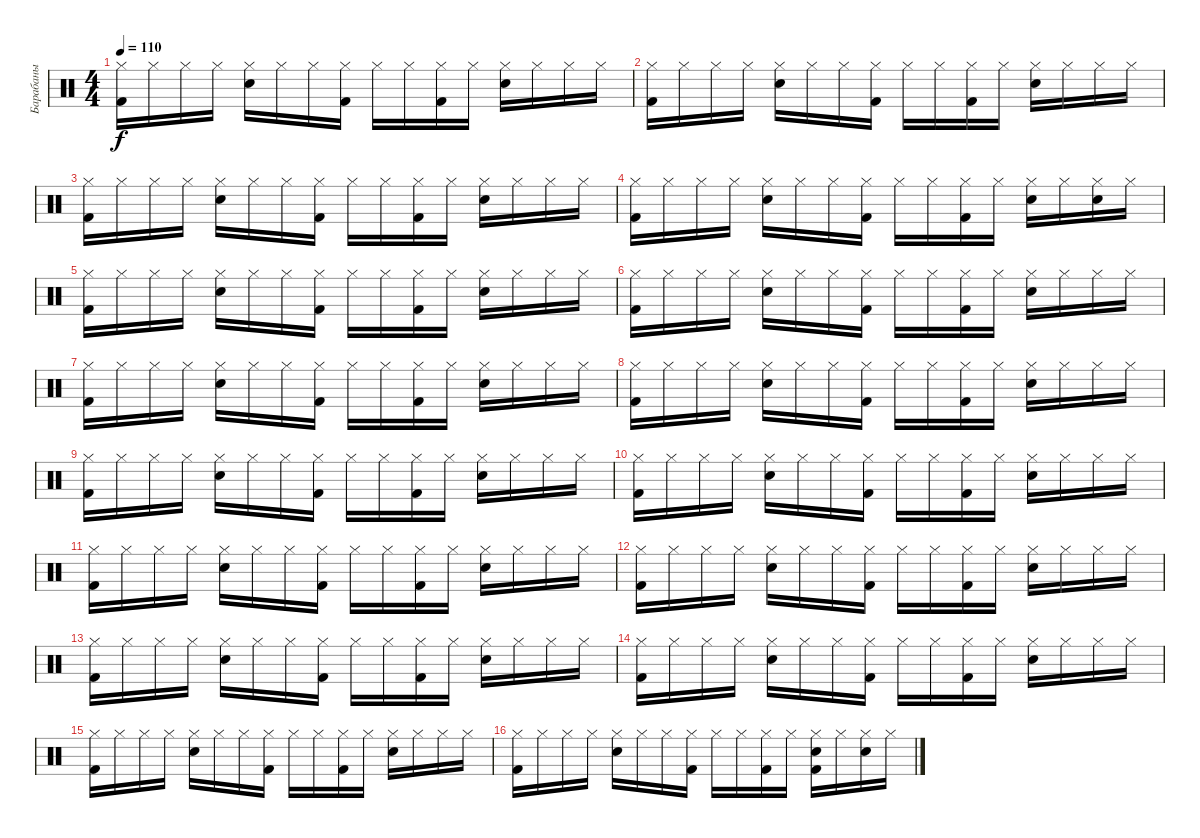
\track ("Барабаны" "Барабаны") {instrument percussion}
\staff {score}
\articulation defaults
\ts (4 4)
\tempo 110
\clef neutral
\ks c
("Hi-Hat (closed)" "Kick (hit) 2").16{dy f} "Hi-Hat (closed)".16 "Hi-Hat (closed)".16 "Hi-Hat (closed)".16 ("Hi-Hat (closed)" "Snare (hit) 2").16 "Hi-Hat (closed)".16 "Hi-Hat (closed)".16 ("Hi-Hat (closed)" "Kick (hit) 2").16 "Hi-Hat (closed)".16 "Hi-Hat (closed)".16 ("Hi-Hat (closed)" "Kick (hit) 2").16 "Hi-Hat (closed)".16 ("Hi-Hat (closed)" "Snare (hit) 2").16 "Hi-Hat (closed)".16 "Hi-Hat (closed)".16 "Hi-Hat (closed)".16 |
("Hi-Hat (closed)" "Kick (hit) 2").16 "Hi-Hat (closed)".16 "Hi-Hat (closed)".16 "Hi-Hat (closed)".16 ("Hi-Hat (closed)" "Snare (hit) 2").16 "Hi-Hat (closed)".16 "Hi-Hat (closed)".16 ("Hi-Hat (closed)" "Kick (hit) 2").16 "Hi-Hat (closed)".16 "Hi-Hat (closed)".16 ("Hi-Hat (closed)" "Kick (hit) 2").16 "Hi-Hat (closed)".16 ("Hi-Hat (closed)" "Snare (hit) 2").16 "Hi-Hat (closed)".16 "Hi-Hat (closed)".16 "Hi-Hat (closed)".16 |
("Hi-Hat (closed)" "Kick (hit) 2").16 "Hi-Hat (closed)".16 "Hi-Hat (closed)".16 "Hi-Hat (closed)".16 ("Hi-Hat (closed)" "Snare (hit) 2").16 "Hi-Hat (closed)".16 "Hi-Hat (closed)".16 ("Hi-Hat (closed)" "Kick (hit) 2").16 "Hi-Hat (closed)".16 "Hi-Hat (closed)".16 ("Hi-Hat (closed)" "Kick (hit) 2").16 "Hi-Hat (closed)".16 ("Hi-Hat (closed)" "Snare (hit) 2").16 "Hi-Hat (closed)".16 "Hi-Hat (closed)".16 "Hi-Hat (closed)".16 |
("Hi-Hat (closed)" "Kick (hit) 2").16 "Hi-Hat (closed)".16 "Hi-Hat (closed)".16 "Hi-Hat (closed)".16 ("Hi-Hat (closed)" "Snare (hit) 2").16 "Hi-Hat (closed)".16 "Hi-Hat (closed)".16 ("Hi-Hat (closed)" "Kick (hit) 2").16 "Hi-Hat (closed)".16 "Hi-Hat (closed)".16 ("Hi-Hat (closed)" "Kick (hit) 2").16 "Hi-Hat (closed)".16 ("Hi-Hat (closed)" "Snare (hit) 2").16 "Hi-Hat (closed)".16 ("Hi-Hat (closed)" "Snare (hit) 2").16 "Hi-Hat (closed)".16 |
("Hi-Hat (closed)" "Kick (hit) 2").16 "Hi-Hat (closed)".16 "Hi-Hat (closed)".16 "Hi-Hat (closed)".16 ("Hi-Hat (closed)" "Snare (hit) 2").16 "Hi-Hat (closed)".16 "Hi-Hat (closed)".16 ("Hi-Hat (closed)" "Kick (hit) 2").16 "Hi-Hat (closed)".16 "Hi-Hat (closed)".16 ("Hi-Hat (closed)" "Kick (hit) 2").16 "Hi-Hat (closed)".16 ("Hi-Hat (closed)" "Snare (hit) 2").16 "Hi-Hat (closed)".16 "Hi-Hat (closed)".16 "Hi-Hat (closed)".16 |
("Hi-Hat (closed)" "Kick (hit) 2").16 "Hi-Hat (closed)".16 "Hi-Hat (closed)".16 "Hi-Hat (closed)".16 ("Hi-Hat (closed)" "Snare (hit) 2").16 "Hi-Hat (closed)".16 "Hi-Hat (closed)".16 ("Hi-Hat (closed)" "Kick (hit) 2").16 "Hi-Hat (closed)".16 "Hi-Hat (closed)".16 ("Hi-Hat (closed)" "Kick (hit) 2").16 "Hi-Hat (closed)".16 ("Hi-Hat (closed)" "Snare (hit) 2").16 "Hi-Hat (closed)".16 "Hi-Hat (closed)".16 "Hi-Hat (closed)".16 |
("Hi-Hat (closed)" "Kick (hit) 2").16 "Hi-Hat (closed)".16 "Hi-Hat (closed)".16 "Hi-Hat (closed)".16 ("Hi-Hat (closed)" "Snare (hit) 2").16 "Hi-Hat (closed)".16 "Hi-Hat (closed)".16 ("Hi-Hat (closed)" "Kick (hit) 2").16 "Hi-Hat (closed)".16 "Hi-Hat (closed)".16 ("Hi-Hat (closed)" "Kick (hit) 2").16 "Hi-Hat (closed)".16 ("Hi-Hat (closed)" "Snare (hit) 2").16 "Hi-Hat (closed)".16 "Hi-Hat (closed)".16 "Hi-Hat (closed)".16 |
("Hi-Hat (closed)" "Kick (hit) 2").16 "Hi-Hat (closed)".16 "Hi-Hat (closed)".16 "Hi-Hat (closed)".16 ("Hi-Hat (closed)" "Snare (hit) 2").16 "Hi-Hat (closed)".16 "Hi-Hat (closed)".16 ("Hi-Hat (closed)" "Kick (hit) 2").16 "Hi-Hat (closed)".16 "Hi-Hat (closed)".16 ("Hi-Hat (closed)" "Kick (hit) 2").16 "Hi-Hat (closed)".16 ("Hi-Hat (closed)" "Snare (hit) 2").16 "Hi-Hat (closed)".16 "Hi-Hat (closed)".16 "Hi-Hat (closed)".16 |
("Hi-Hat (closed)" "Kick (hit) 2").16 "Hi-Hat (closed)".16 "Hi-Hat (closed)".16 "Hi-Hat (closed)".16 ("Hi-Hat (closed)" "Snare (hit) 2").16 "Hi-Hat (closed)".16 "Hi-Hat (closed)".16 ("Hi-Hat (closed)" "Kick (hit) 2").16 "Hi-Hat (closed)".16 "Hi-Hat (closed)".16 ("Hi-Hat (closed)" "Kick (hit) 2").16 "Hi-Hat (closed)".16 ("Hi-Hat (closed)" "Snare (hit) 2").16 "Hi-Hat (closed)".16 "Hi-Hat (closed)".16 "Hi-Hat (closed)".16 |
("Hi-Hat (closed)" "Kick (hit) 2").16 "Hi-Hat (closed)".16 "Hi-Hat (closed)".16 "Hi-Hat (closed)".16 ("Hi-Hat (closed)" "Snare (hit) 2").16 "Hi-Hat (closed)".16 "Hi-Hat (closed)".16 ("Hi-Hat (closed)" "Kick (hit) 2").16 "Hi-Hat (closed)".16 "Hi-Hat (closed)".16 ("Hi-Hat (closed)" "Kick (hit) 2").16 "Hi-Hat (closed)".16 ("Hi-Hat (closed)" "Snare (hit) 2").16 "Hi-Hat (closed)".16 "Hi-Hat (closed)".16 "Hi-Hat (closed)".16 |
("Hi-Hat (closed)" "Kick (hit) 2").16 "Hi-Hat (closed)".16 "Hi-Hat (closed)".16 "Hi-Hat (closed)".16 ("Hi-Hat (closed)" "Snare (hit) 2").16 "Hi-Hat (closed)".16 "Hi-Hat (closed)".16 ("Hi-Hat (closed)" "Kick (hit) 2").16 "Hi-Hat (closed)".16 "Hi-Hat (closed)".16 ("Hi-Hat (closed)" "Kick (hit) 2").16 "Hi-Hat (closed)".16 ("Hi-Hat (closed)" "Snare (hit) 2").16 "Hi-Hat (closed)".16 "Hi-Hat (closed)".16 "Hi-Hat (closed)".16 |
("Hi-Hat (closed)" "Kick (hit) 2").16 "Hi-Hat (closed)".16 "Hi-Hat (closed)".16 "Hi-Hat (closed)".16 ("Hi-Hat (closed)" "Snare (hit) 2").16 "Hi-Hat (closed)".16 "Hi-Hat (closed)".16 ("Hi-Hat (closed)" "Kick (hit) 2").16 "Hi-Hat (closed)".16 "Hi-Hat (closed)".16 ("Hi-Hat (closed)" "Kick (hit) 2").16 "Hi-Hat (closed)".16 ("Hi-Hat (closed)" "Snare (hit) 2").16 "Hi-Hat (closed)".16 "Hi-Hat (closed)".16 "Hi-Hat (closed)".16 |
("Hi-Hat (closed)" "Kick (hit) 2").16 "Hi-Hat (closed)".16 "Hi-Hat (closed)".16 "Hi-Hat (closed)".16 ("Hi-Hat (closed)" "Snare (hit) 2").16 "Hi-Hat (closed)".16 "Hi-Hat (closed)".16 ("Hi-Hat (closed)" "Kick (hit) 2").16 "Hi-Hat (closed)".16 "Hi-Hat (closed)".16 ("Hi-Hat (closed)" "Kick (hit) 2").16 "Hi-Hat (closed)".16 ("Hi-Hat (closed)" "Snare (hit) 2").16 "Hi-Hat (closed)".16 "Hi-Hat (closed)".16 "Hi-Hat (closed)".16 |
("Hi-Hat (closed)" "Kick (hit) 2").16 "Hi-Hat (closed)".16 "Hi-Hat (closed)".16 "Hi-Hat (closed)".16 ("Hi-Hat (closed)" "Snare (hit) 2").16 "Hi-Hat (closed)".16 "Hi-Hat (closed)".16 ("Hi-Hat (closed)" "Kick (hit) 2").16 "Hi-Hat (closed)".16 "Hi-Hat (closed)".16 ("Hi-Hat (closed)" "Kick (hit) 2").16 "Hi-Hat (closed)".16 ("Hi-Hat (closed)" "Snare (hit) 2").16 "Hi-Hat (closed)".16 "Hi-Hat (closed)".16 "Hi-Hat (closed)".16 |
("Hi-Hat (closed)" "Kick (hit) 2").16 "Hi-Hat (closed)".16 "Hi-Hat (closed)".16 "Hi-Hat (closed)".16 ("Hi-Hat (closed)" "Snare (hit) 2").16 "Hi-Hat (closed)".16 "Hi-Hat (closed)".16 ("Hi-Hat (closed)" "Kick (hit) 2").16 "Hi-Hat (closed)".16 "Hi-Hat (closed)".16 ("Hi-Hat (closed)" "Kick (hit) 2").16 "Hi-Hat (closed)".16 ("Hi-Hat (closed)" "Snare (hit) 2").16 "Hi-Hat (closed)".16 "Hi-Hat (closed)".16 "Hi-Hat (closed)".16 |
("Hi-Hat (closed)" "Kick (hit) 2").16 "Hi-Hat (closed)".16 "Hi-Hat (closed)".16 "Hi-Hat (closed)".16 ("Hi-Hat (closed)" "Snare (hit) 2").16 "Hi-Hat (closed)".16 "Hi-Hat (closed)".16 ("Hi-Hat (closed)" "Kick (hit) 2").16 "Hi-Hat (closed)".16 "Hi-Hat (closed)".16 ("Hi-Hat (closed)" "Kick (hit) 2").16 "Hi-Hat (closed)".16 ("Hi-Hat (closed)" "Snare (hit) 2" "Kick (hit) 2").16 "Hi-Hat (closed)".16 ("Hi-Hat (closed)" "Snare (hit) 2").16 "Hi-Hat (closed)".16
